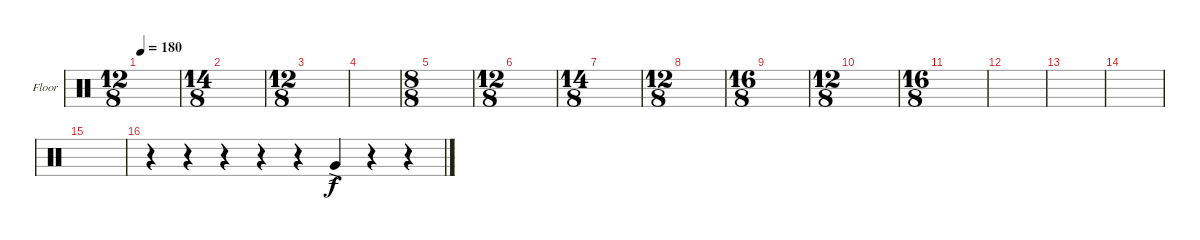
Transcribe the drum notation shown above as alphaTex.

\defaultSystemsLayout 4
\bracketExtendMode groupsimilarinstruments
\firstSystemTrackNameOrientation horizontal
\otherSystemsTrackNameOrientation horizontal
\track ("Floor Toms" "Floor") {instrument percussion}
\staff {score}
\articulation defaults
\ts (12 8)
\tempo 180
\clef neutral
\ks c
|
\ts (14 8)
|
\ts (12 8)
|
|
\ts (8 8)
|
\ts (12 8)
|
\ts (14 8)
|
\ts (12 8)
|
\ts (16 8)
|
\ts (12 8)
|
\ts (16 8)
|
|
|
|
|
r.4 r.4 r.4 r.4 r.4 "Very Low Tom (hit)"{ac}.4 r.4 r.4
